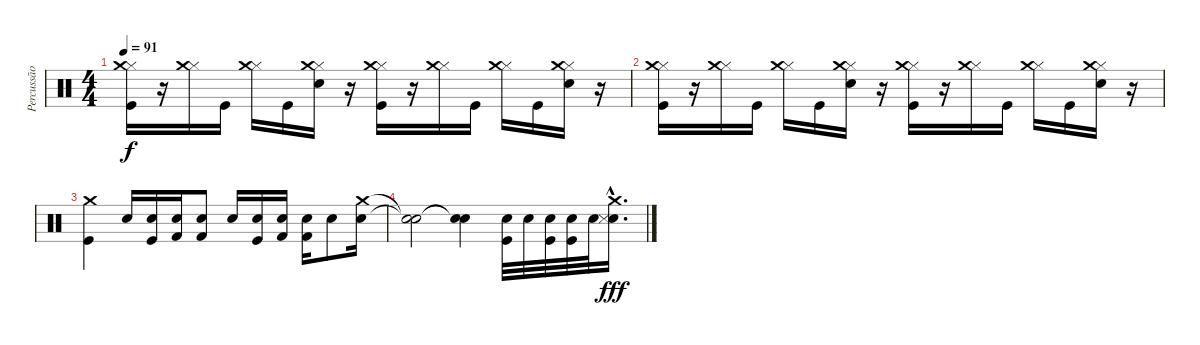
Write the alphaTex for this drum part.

\track ("Percussão" "Percussão") {instrument percussion}
\staff {score}
\articulation defaults
\ts (4 4)
\tempo 91
\clef neutral
\ks c
("Kick (hit)" "Hi-Hat (closed)" "Crash medium (hit)").16{dy f} r.16 ("Hi-Hat (closed)" "Crash medium (hit)").16 "Kick (hit)".16 ("Hi-Hat (closed)" "Crash medium (hit)").16 "Kick (hit)".16 ("Electric Snare (hit)" "Hi-Hat (closed)" "Crash medium (hit)").16 r.16 ("Kick (hit)" "Hi-Hat (closed)" "Crash medium (hit)").16 r.16 ("Hi-Hat (closed)" "Crash medium (hit)").16 "Kick (hit)".16 ("Hi-Hat (closed)" "Crash medium (hit)").16 "Kick (hit)".16 ("Electric Snare (hit)" "Hi-Hat (closed)" "Crash medium (hit)").16 r.16 |
("Kick (hit)" "Hi-Hat (closed)" "Crash medium (hit)").16 r.16 ("Hi-Hat (closed)" "Crash medium (hit)").16 "Kick (hit)".16 ("Hi-Hat (closed)" "Crash medium (hit)").16 "Kick (hit)".16 ("Electric Snare (hit)" "Hi-Hat (closed)" "Crash medium (hit)").16 r.16 ("Kick (hit)" "Hi-Hat (closed)" "Crash medium (hit)").16 r.16 ("Hi-Hat (closed)" "Crash medium (hit)").16 "Kick (hit)".16 ("Hi-Hat (closed)" "Crash medium (hit)").16 "Kick (hit)".16 ("Electric Snare (hit)" "Hi-Hat (closed)" "Crash medium (hit)").16 r.16 |
("Crash medium (hit)" "Kick (hit)").4 "Electric Snare (hit)".16 ("Electric Snare (hit)" "Kick (hit)").16 ("Electric Snare (hit)" "Kick (hit) 2").16 ("Electric Snare (hit)" "Kick (hit) 2").8 "Electric Snare (hit)".16 ("Electric Snare (hit)" "Kick (hit)").16 ("Electric Snare (hit)" "Kick (hit) 2").16 ("Electric Snare (hit)" "Kick (hit) 2").16 "Electric Snare (hit)".8 ("Electric Snare (hit)" "Crash medium (hit)").16 |
("Snare (hit)"{t} "Snare (hit)"{t}).2 ("Snare (hit)"{t} "Snare (hit)"{t}).4 ("Electric Snare (hit)" "Kick (hit)").32 "Electric Snare (hit)".32 ("Electric Snare (hit)" "Kick (hit)").32 ("Electric Snare (hit)" "Kick (hit)").32 "Electric Snare (hit)".32 ("Crash medium (hit)"{nh hac} "Electric Snare (hit)"{nh hac} "Snare (side stick) 3"{nh hac}).16{d dy fff}
